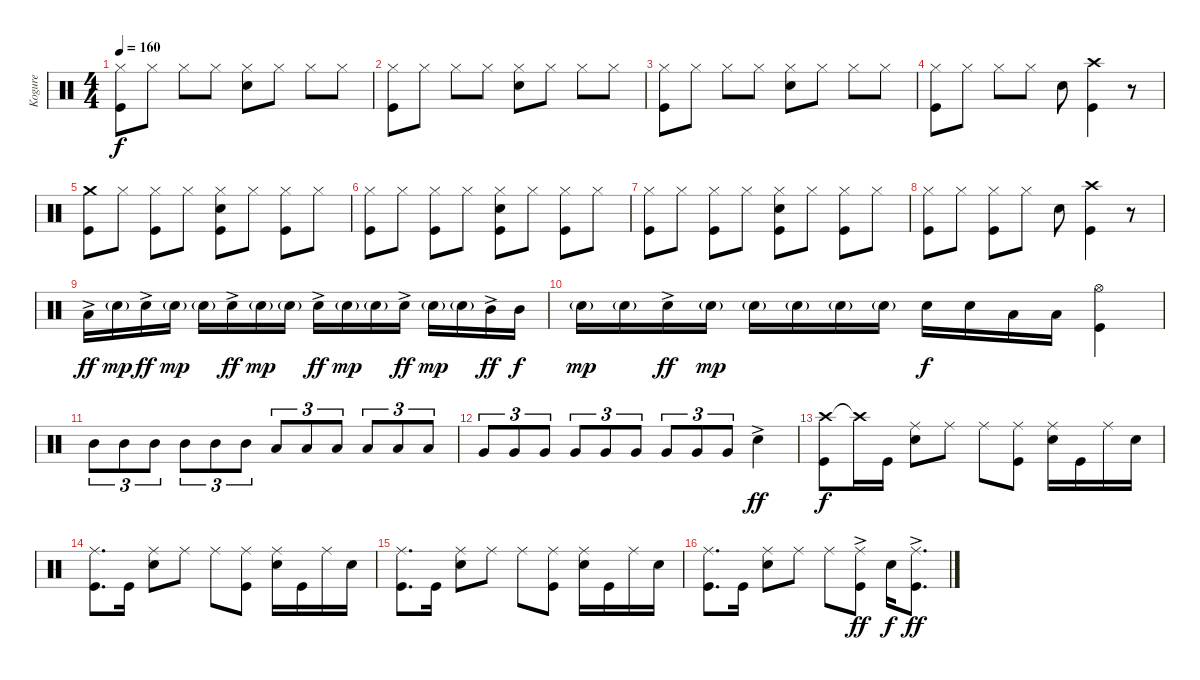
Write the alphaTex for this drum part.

\track ("Kogure" "Kogure") {instrument percussion}
\staff {score}
\articulation defaults
\ts (4 4)
\tempo 160
\clef neutral
\ks c
("Hi-Hat (closed)" "Kick (hit)").8{dy f} "Hi-Hat (closed)".8 "Hi-Hat (closed)".8 "Hi-Hat (closed)".8 ("Hi-Hat (closed)" "Snare (hit) 2").8 "Hi-Hat (closed)".8 "Hi-Hat (closed)".8 "Hi-Hat (closed)".8 |
("Hi-Hat (closed)" "Kick (hit)").8 "Hi-Hat (closed)".8 "Hi-Hat (closed)".8 "Hi-Hat (closed)".8 ("Hi-Hat (closed)" "Snare (hit) 2").8 "Hi-Hat (closed)".8 "Hi-Hat (closed)".8 "Hi-Hat (closed)".8 |
("Hi-Hat (closed)" "Kick (hit)").8 "Hi-Hat (closed)".8 "Hi-Hat (closed)".8 "Hi-Hat (closed)".8 ("Hi-Hat (closed)" "Snare (hit) 2").8 "Hi-Hat (closed)".8 "Hi-Hat (closed)".8 "Hi-Hat (closed)".8 |
("Hi-Hat (closed)" "Kick (hit)").8 "Hi-Hat (closed)".8 "Hi-Hat (closed)".8 "Hi-Hat (closed)".8 "Snare (hit) 2".8 ("Crash high (hit)" "Kick (hit)").4 r.8 |
("Crash medium (hit)" "Kick (hit)").8 "Hi-Hat (closed)".8 ("Hi-Hat (closed)" "Kick (hit)").8 "Hi-Hat (closed)".8 ("Hi-Hat (closed)" "Snare (hit) 2" "Kick (hit)").8 "Hi-Hat (closed)".8 ("Hi-Hat (closed)" "Kick (hit)").8 "Hi-Hat (closed)".8 |
("Hi-Hat (closed)" "Kick (hit)").8 "Hi-Hat (closed)".8 ("Hi-Hat (closed)" "Kick (hit)").8 "Hi-Hat (closed)".8 ("Hi-Hat (closed)" "Snare (hit) 2" "Kick (hit)").8 "Hi-Hat (closed)".8 ("Hi-Hat (closed)" "Kick (hit)").8 "Hi-Hat (closed)".8 |
("Hi-Hat (closed)" "Kick (hit)").8 "Hi-Hat (closed)".8 ("Hi-Hat (closed)" "Kick (hit)").8 "Hi-Hat (closed)".8 ("Hi-Hat (closed)" "Snare (hit) 2" "Kick (hit)").8 "Hi-Hat (closed)".8 ("Hi-Hat (closed)" "Kick (hit)").8 "Hi-Hat (closed)".8 |
("Hi-Hat (closed)" "Kick (hit)").8 "Hi-Hat (closed)".8 ("Hi-Hat (closed)" "Kick (hit)").8 "Hi-Hat (closed)".8 "Snare (hit) 2".8 ("Crash high (hit)" "Kick (hit)").4 r.8 |
"Low Tom (hit)"{ac}.16{dy ff} "Snare (hit) 2"{g}.16{dy mp} "Snare (hit) 2"{ac}.16{dy ff} "Snare (hit) 2"{g}.16{dy mp} "Snare (hit) 2"{g}.16 "Snare (hit) 2"{ac}.16{dy ff} "Snare (hit) 2"{g}.16{dy mp} "Snare (hit) 2"{g}.16 "Snare (hit) 2"{ac}.16{dy ff} "Snare (hit) 2"{g}.16{dy mp} "Snare (hit) 2"{g}.16 "Snare (hit) 2"{ac}.16{dy ff} "Snare (hit) 2"{g}.16{dy mp} "Snare (hit) 2"{g}.16 "Mid Tom (hit)"{ac}.16{dy ff} "Mid Tom (hit)".16{dy f} |
"Snare (hit) 2"{g}.16{dy mp} "Snare (hit) 2"{g}.16 "Snare (hit) 2"{ac}.16{dy ff} "Snare (hit) 2"{g}.16{dy mp} "Snare (hit) 2"{g}.16 "Snare (hit) 2"{g}.16 "Snare (hit) 2"{g}.16 "Snare (hit) 2"{g}.16 "Snare (hit) 2".16{dy f} "Snare (hit) 2".16 "Low Tom (hit)".16 "Low Tom (hit)".16 ("Hi-Hat (open)" "Kick (hit)").4 |
"Mid Tom (hit)".8{tu (3 2)} "Mid Tom (hit)".8{tu (3 2)} "Mid Tom (hit)".8{tu (3 2)} "Mid Tom (hit)".8{tu (3 2)} "Mid Tom (hit)".8{tu (3 2)} "Mid Tom (hit)".8{tu (3 2)} "Low Tom (hit)".8{tu (3 2)} "Low Tom (hit)".8{tu (3 2)} "Low Tom (hit)".8{tu (3 2)} "Low Tom (hit)".8{tu (3 2)} "Low Tom (hit)".8{tu (3 2)} "Low Tom (hit)".8{tu (3 2)} |
"Very Low Tom (hit)".8{tu (3 2)} "Very Low Tom (hit)".8{tu (3 2)} "Very Low Tom (hit)".8{tu (3 2)} "Very Low Tom (hit)".8{tu (3 2)} "Very Low Tom (hit)".8{tu (3 2)} "Very Low Tom (hit)".8{tu (3 2)} "Very Low Tom (hit)".8{tu (3 2)} "Very Low Tom (hit)".8{tu (3 2)} "Very Low Tom (hit)".8{tu (3 2)} "Snare (hit) 2"{ac}.4{dy ff} |
("Crash high (hit)" "Kick (hit)").8{dy f} "Crash high (hit)"{t}.16 "Kick (hit)".16 ("Ride (middle)" "Snare (hit) 2").8 "Ride (middle)".8 "Ride (middle)".8 ("Ride (middle)" "Kick (hit)").8 ("Ride (middle)" "Snare (hit) 2").16 "Kick (hit)".16 "Ride (middle)".16 "Snare (hit) 2".16 |
("Ride (middle)" "Kick (hit)").8{d} "Kick (hit)".16 ("Ride (middle)" "Snare (hit) 2").8 "Ride (middle)".8 "Ride (middle)".8 ("Ride (middle)" "Kick (hit)").8 ("Ride (middle)" "Snare (hit) 2").16 "Kick (hit)".16 "Ride (middle)".16 "Snare (hit) 2".16 |
("Ride (middle)" "Kick (hit)").8{d} "Kick (hit)".16 ("Ride (middle)" "Snare (hit) 2").8 "Ride (middle)".8 "Ride (middle)".8 ("Ride (middle)" "Kick (hit)").8 ("Ride (middle)" "Snare (hit) 2").16 "Kick (hit)".16 "Ride (middle)".16 "Snare (hit) 2".16 |
("Ride (middle)" "Kick (hit)").8{d} "Kick (hit)".16 ("Ride (middle)" "Snare (hit) 2").8 "Ride (middle)".8 "Ride (middle)".8 ("Ride (middle)"{ac} "Kick (hit)").8{dy ff} "Snare (hit) 2".16{dy f} ("Ride (middle)"{ac} "Kick (hit)").8{d dy ff}
